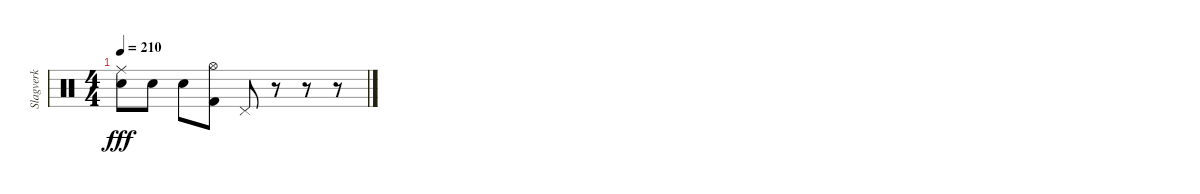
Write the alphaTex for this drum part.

\track ("Slagverk" "Slagverk") {instrument percussion}
\staff {score}
\articulation defaults
\ts (4 4)
\tempo 210
\clef neutral
\ks c
("Ride (middle)" "Electric Snare (hit)").8{dy fff} "Electric Snare (hit)".8 "Electric Snare (hit)".8 ("Hi-Hat (open)" "Kick (hit) 2").8 "Pedal Hi-Hat (hit)".8 r.8 r.8 r.8
